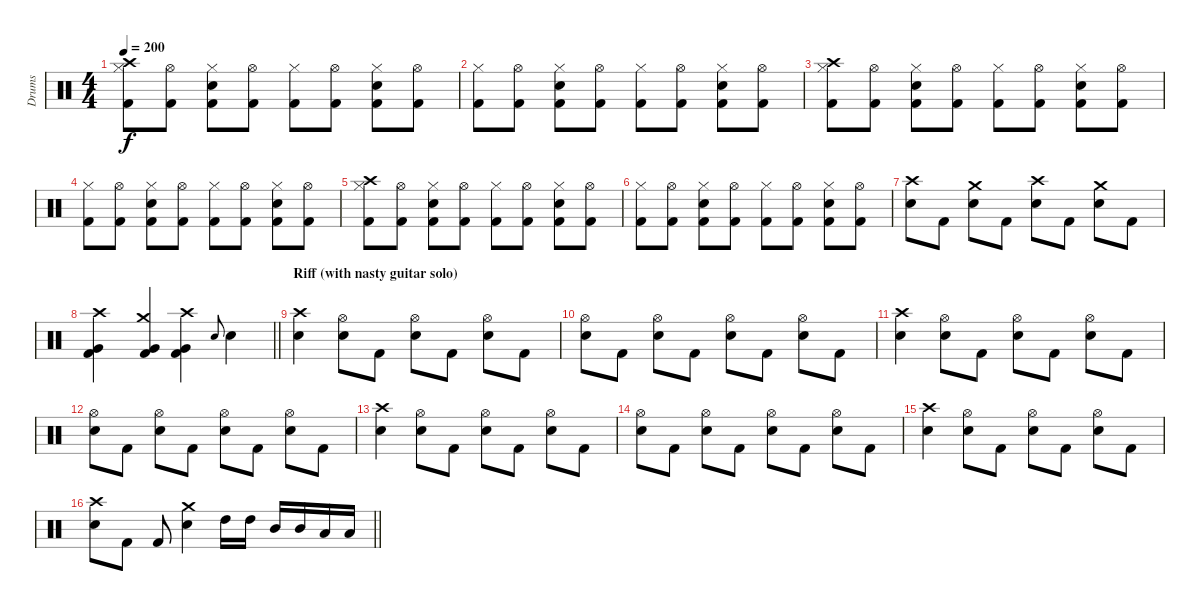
\track ("Drums" "Drums") {instrument percussion}
\staff {score}
\articulation defaults
\ts (4 4)
\tempo 200
\clef neutral
\ks c
("Crash high (hit)" "Hi-Hat (closed)" "Kick (hit) 2").8{dy f} ("Hi-Hat (open)" "Kick (hit) 2").8 ("Hi-Hat (closed)" "Snare (hit) 2" "Kick (hit) 2").8 ("Hi-Hat (open)" "Kick (hit) 2").8 ("Hi-Hat (closed)" "Kick (hit) 2").8 ("Hi-Hat (open)" "Kick (hit) 2").8 ("Hi-Hat (closed)" "Snare (hit) 2" "Kick (hit) 2").8 ("Hi-Hat (open)" "Kick (hit) 2").8 |
("Hi-Hat (closed)" "Kick (hit) 2").8 ("Hi-Hat (open)" "Kick (hit) 2").8 ("Hi-Hat (closed)" "Snare (hit) 2" "Kick (hit) 2").8 ("Hi-Hat (open)" "Kick (hit) 2").8 ("Hi-Hat (closed)" "Kick (hit) 2").8 ("Hi-Hat (open)" "Kick (hit) 2").8 ("Hi-Hat (closed)" "Snare (hit) 2" "Kick (hit) 2").8 ("Hi-Hat (open)" "Kick (hit) 2").8 |
("Crash high (hit)" "Hi-Hat (closed)" "Kick (hit) 2").8 ("Hi-Hat (open)" "Kick (hit) 2").8 ("Hi-Hat (closed)" "Snare (hit) 2" "Kick (hit) 2").8 ("Hi-Hat (open)" "Kick (hit) 2").8 ("Hi-Hat (closed)" "Kick (hit) 2").8 ("Hi-Hat (open)" "Kick (hit) 2").8 ("Hi-Hat (closed)" "Snare (hit) 2" "Kick (hit) 2").8 ("Hi-Hat (open)" "Kick (hit) 2").8 |
("Hi-Hat (closed)" "Kick (hit) 2").8 ("Hi-Hat (open)" "Kick (hit) 2").8 ("Hi-Hat (closed)" "Snare (hit) 2" "Kick (hit) 2").8 ("Hi-Hat (open)" "Kick (hit) 2").8 ("Hi-Hat (closed)" "Kick (hit) 2").8 ("Hi-Hat (open)" "Kick (hit) 2").8 ("Hi-Hat (closed)" "Snare (hit) 2" "Kick (hit) 2").8 ("Hi-Hat (open)" "Kick (hit) 2").8 |
("Crash high (hit)" "Hi-Hat (closed)" "Kick (hit) 2").8 ("Hi-Hat (open)" "Kick (hit) 2").8 ("Hi-Hat (closed)" "Snare (hit) 2" "Kick (hit) 2").8 ("Hi-Hat (open)" "Kick (hit) 2").8 ("Hi-Hat (closed)" "Kick (hit) 2").8 ("Hi-Hat (open)" "Kick (hit) 2").8 ("Hi-Hat (closed)" "Snare (hit) 2" "Kick (hit) 2").8 ("Hi-Hat (open)" "Kick (hit) 2").8 |
("Hi-Hat (closed)" "Kick (hit) 2").8 ("Hi-Hat (open)" "Kick (hit) 2").8 ("Hi-Hat (closed)" "Snare (hit) 2" "Kick (hit) 2").8 ("Hi-Hat (open)" "Kick (hit) 2").8 ("Hi-Hat (closed)" "Kick (hit) 2").8 ("Hi-Hat (open)" "Kick (hit) 2").8 ("Hi-Hat (closed)" "Snare (hit) 2" "Kick (hit) 2").8 ("Hi-Hat (open)" "Kick (hit) 2").8 |
("Crash high (hit)" "Snare (hit) 2").8 "Kick (hit) 2".8 ("Crash medium (hit)" "Snare (hit) 2").8 "Kick (hit) 2".8 ("Crash high (hit)" "Snare (hit) 2").8 "Kick (hit) 2".8 ("Crash medium (hit)" "Snare (hit) 2").8 "Kick (hit) 2".8 |
\barLineRight lightlight
("Crash high (hit)" "Very Low Tom (hit)" "Kick (hit) 2").4 ("Crash medium (hit)" "Very Low Tom (hit)" "Kick (hit) 2").4 ("Crash high (hit)" "Very Low Tom (hit)" "Kick (hit) 2").4 "Snare (hit) 2".8{gr onbeat} "Snare (hit) 2".4 |
\section ("" "Riff (with nasty guitar solo)")
("Crash high (hit)" "Snare (hit) 2").4 ("Hi-Hat (open)" "Snare (hit) 2").8 "Kick (hit) 2".8 ("Hi-Hat (open)" "Snare (hit) 2").8 "Kick (hit) 2".8 ("Hi-Hat (open)" "Snare (hit) 2").8 "Kick (hit) 2".8 |
("Hi-Hat (open)" "Snare (hit) 2").8 "Kick (hit) 2".8 ("Hi-Hat (open)" "Snare (hit) 2").8 "Kick (hit) 2".8 ("Hi-Hat (open)" "Snare (hit) 2").8 "Kick (hit) 2".8 ("Hi-Hat (open)" "Snare (hit) 2").8 "Kick (hit) 2".8 |
("Crash high (hit)" "Snare (hit) 2").4 ("Hi-Hat (open)" "Snare (hit) 2").8 "Kick (hit) 2".8 ("Hi-Hat (open)" "Snare (hit) 2").8 "Kick (hit) 2".8 ("Hi-Hat (open)" "Snare (hit) 2").8 "Kick (hit) 2".8 |
("Hi-Hat (open)" "Snare (hit) 2").8 "Kick (hit) 2".8 ("Hi-Hat (open)" "Snare (hit) 2").8 "Kick (hit) 2".8 ("Hi-Hat (open)" "Snare (hit) 2").8 "Kick (hit) 2".8 ("Hi-Hat (open)" "Snare (hit) 2").8 "Kick (hit) 2".8 |
("Crash high (hit)" "Snare (hit) 2").4 ("Hi-Hat (open)" "Snare (hit) 2").8 "Kick (hit) 2".8 ("Hi-Hat (open)" "Snare (hit) 2").8 "Kick (hit) 2".8 ("Hi-Hat (open)" "Snare (hit) 2").8 "Kick (hit) 2".8 |
("Hi-Hat (open)" "Snare (hit) 2").8 "Kick (hit) 2".8 ("Hi-Hat (open)" "Snare (hit) 2").8 "Kick (hit) 2".8 ("Hi-Hat (open)" "Snare (hit) 2").8 "Kick (hit) 2".8 ("Hi-Hat (open)" "Snare (hit) 2").8 "Kick (hit) 2".8 |
("Crash high (hit)" "Snare (hit) 2").4 ("Hi-Hat (open)" "Snare (hit) 2").8 "Kick (hit) 2".8 ("Hi-Hat (open)" "Snare (hit) 2").8 "Kick (hit) 2".8 ("Hi-Hat (open)" "Snare (hit) 2").8 "Kick (hit) 2".8 |
\barLineRight lightlight
("Crash high (hit)" "Snare (hit) 2").8 "Kick (hit) 2".8 "Kick (hit) 2".8 ("Crash medium (hit)" "Snare (hit) 2").4 "High Tom (hit)".16 "High Tom (hit)".16 "Mid Tom (hit)".16 "Mid Tom (hit)".16 "Low Tom (hit)".16 "Low Tom (hit)".16
